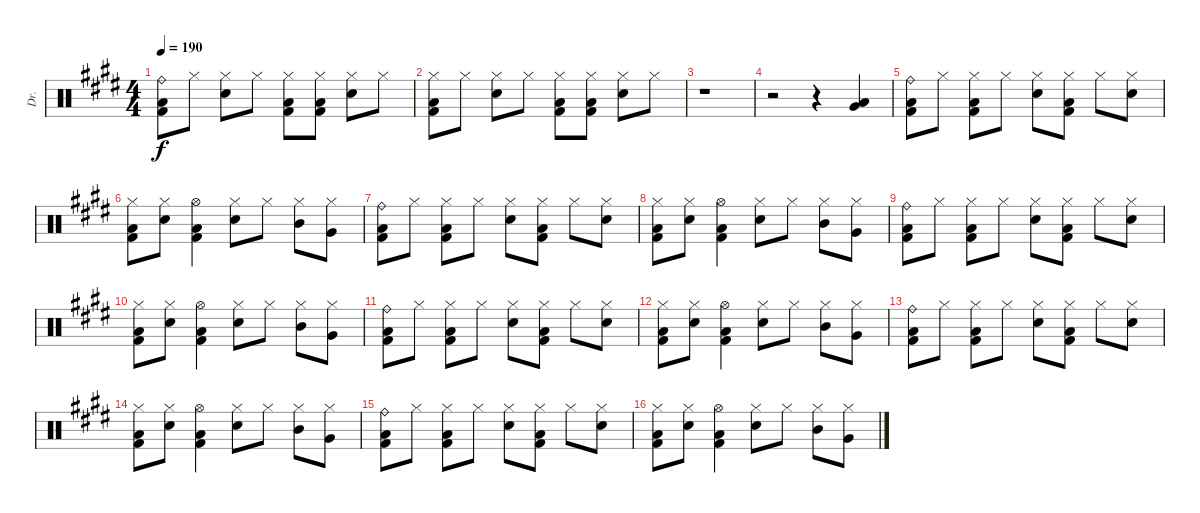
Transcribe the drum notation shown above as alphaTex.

\track ("Dr." "Dr.") {instrument percussion}
\staff {score}
\articulation defaults
\ts (4 4)
\tempo 190
\clef neutral
\ks e
("Ride (bell)" "Low Floor Tom (hit)" "Kick (hit) 2").8{dy f} "Hi-Hat (closed)".8 ("Electric Snare (hit)" "Hi-Hat (closed)").8 "Hi-Hat (closed)".8 ("Hi-Hat (closed)" "Low Floor Tom (hit)" "Kick (hit) 2").8 ("Hi-Hat (closed)" "Low Floor Tom (hit)" "Kick (hit) 2").8 ("Electric Snare (hit)" "Hi-Hat (closed)").8 "Hi-Hat (closed)".8 |
("Hi-Hat (closed)" "Low Floor Tom (hit)" "Kick (hit) 2").8 "Hi-Hat (closed)".8 ("Electric Snare (hit)" "Hi-Hat (closed)").8 "Hi-Hat (closed)".8 ("Hi-Hat (closed)" "Low Floor Tom (hit)" "Kick (hit) 2").8 ("Hi-Hat (closed)" "Low Floor Tom (hit)" "Kick (hit) 2").8 ("Electric Snare (hit)" "Hi-Hat (closed)").8 "Hi-Hat (closed)".8 |
r.1 |
r.2 r.4 ("Very Low Tom (hit)" "Low Floor Tom (hit)").4 |
("Ride (bell)" "Low Floor Tom (hit)" "Kick (hit) 2").8 "Hi-Hat (closed)".8 ("Hi-Hat (closed)" "Low Floor Tom (hit)" "Kick (hit) 2").8 "Hi-Hat (closed)".8 ("Electric Snare (hit)" "Hi-Hat (closed)").8 ("Hi-Hat (closed)" "Low Floor Tom (hit)" "Kick (hit) 2").8 "Hi-Hat (closed)".8 ("Electric Snare (hit)" "Hi-Hat (closed)").8 |
("Hi-Hat (closed)" "Low Floor Tom (hit)" "Kick (hit) 2").8 ("Electric Snare (hit)" "Hi-Hat (closed)").8 ("Hi-Hat (open)" "Low Floor Tom (hit)" "Kick (hit) 2").4 ("Electric Snare (hit)" "Hi-Hat (closed)").8 "Hi-Hat (closed)".8 ("Mid Tom (hit)" "Hi-Hat (closed)").8 ("Very Low Tom (hit)" "Hi-Hat (closed)").8 |
("Ride (bell)" "Low Floor Tom (hit)" "Kick (hit) 2").8 "Hi-Hat (closed)".8 ("Hi-Hat (closed)" "Low Floor Tom (hit)" "Kick (hit) 2").8 "Hi-Hat (closed)".8 ("Electric Snare (hit)" "Hi-Hat (closed)").8 ("Hi-Hat (closed)" "Low Floor Tom (hit)" "Kick (hit) 2").8 "Hi-Hat (closed)".8 ("Electric Snare (hit)" "Hi-Hat (closed)").8 |
("Hi-Hat (closed)" "Low Floor Tom (hit)" "Kick (hit) 2").8 ("Electric Snare (hit)" "Hi-Hat (closed)").8 ("Hi-Hat (open)" "Low Floor Tom (hit)" "Kick (hit) 2").4 ("Electric Snare (hit)" "Hi-Hat (closed)").8 "Hi-Hat (closed)".8 ("Mid Tom (hit)" "Hi-Hat (closed)").8 ("Very Low Tom (hit)" "Hi-Hat (closed)").8 |
("Ride (bell)" "Low Floor Tom (hit)" "Kick (hit) 2").8 "Hi-Hat (closed)".8 ("Hi-Hat (closed)" "Low Floor Tom (hit)" "Kick (hit) 2").8 "Hi-Hat (closed)".8 ("Electric Snare (hit)" "Hi-Hat (closed)").8 ("Hi-Hat (closed)" "Low Floor Tom (hit)" "Kick (hit) 2").8 "Hi-Hat (closed)".8 ("Electric Snare (hit)" "Hi-Hat (closed)").8 |
("Hi-Hat (closed)" "Low Floor Tom (hit)" "Kick (hit) 2").8 ("Electric Snare (hit)" "Hi-Hat (closed)").8 ("Hi-Hat (open)" "Low Floor Tom (hit)" "Kick (hit) 2").4 ("Electric Snare (hit)" "Hi-Hat (closed)").8 "Hi-Hat (closed)".8 ("Mid Tom (hit)" "Hi-Hat (closed)").8 ("Very Low Tom (hit)" "Hi-Hat (closed)").8 |
("Ride (bell)" "Low Floor Tom (hit)" "Kick (hit) 2").8 "Hi-Hat (closed)".8 ("Hi-Hat (closed)" "Low Floor Tom (hit)" "Kick (hit) 2").8 "Hi-Hat (closed)".8 ("Electric Snare (hit)" "Hi-Hat (closed)").8 ("Hi-Hat (closed)" "Low Floor Tom (hit)" "Kick (hit) 2").8 "Hi-Hat (closed)".8 ("Electric Snare (hit)" "Hi-Hat (closed)").8 |
("Hi-Hat (closed)" "Low Floor Tom (hit)" "Kick (hit) 2").8 ("Electric Snare (hit)" "Hi-Hat (closed)").8 ("Hi-Hat (open)" "Low Floor Tom (hit)" "Kick (hit) 2").4 ("Electric Snare (hit)" "Hi-Hat (closed)").8 "Hi-Hat (closed)".8 ("Mid Tom (hit)" "Hi-Hat (closed)").8 ("Very Low Tom (hit)" "Hi-Hat (closed)").8 |
("Ride (bell)" "Low Floor Tom (hit)" "Kick (hit) 2").8 "Hi-Hat (closed)".8 ("Hi-Hat (closed)" "Low Floor Tom (hit)" "Kick (hit) 2").8 "Hi-Hat (closed)".8 ("Electric Snare (hit)" "Hi-Hat (closed)").8 ("Hi-Hat (closed)" "Low Floor Tom (hit)" "Kick (hit) 2").8 "Hi-Hat (closed)".8 ("Electric Snare (hit)" "Hi-Hat (closed)").8 |
("Hi-Hat (closed)" "Low Floor Tom (hit)" "Kick (hit) 2").8 ("Electric Snare (hit)" "Hi-Hat (closed)").8 ("Hi-Hat (open)" "Low Floor Tom (hit)" "Kick (hit) 2").4 ("Electric Snare (hit)" "Hi-Hat (closed)").8 "Hi-Hat (closed)".8 ("Mid Tom (hit)" "Hi-Hat (closed)").8 ("Very Low Tom (hit)" "Hi-Hat (closed)").8 |
("Ride (bell)" "Low Floor Tom (hit)" "Kick (hit) 2").8 "Hi-Hat (closed)".8 ("Hi-Hat (closed)" "Low Floor Tom (hit)" "Kick (hit) 2").8 "Hi-Hat (closed)".8 ("Electric Snare (hit)" "Hi-Hat (closed)").8 ("Hi-Hat (closed)" "Low Floor Tom (hit)" "Kick (hit) 2").8 "Hi-Hat (closed)".8 ("Electric Snare (hit)" "Hi-Hat (closed)").8 |
("Hi-Hat (closed)" "Low Floor Tom (hit)" "Kick (hit) 2").8 ("Electric Snare (hit)" "Hi-Hat (closed)").8 ("Hi-Hat (open)" "Low Floor Tom (hit)" "Kick (hit) 2").4 ("Electric Snare (hit)" "Hi-Hat (closed)").8 "Hi-Hat (closed)".8 ("Mid Tom (hit)" "Hi-Hat (closed)").8 ("Very Low Tom (hit)" "Hi-Hat (closed)").8
